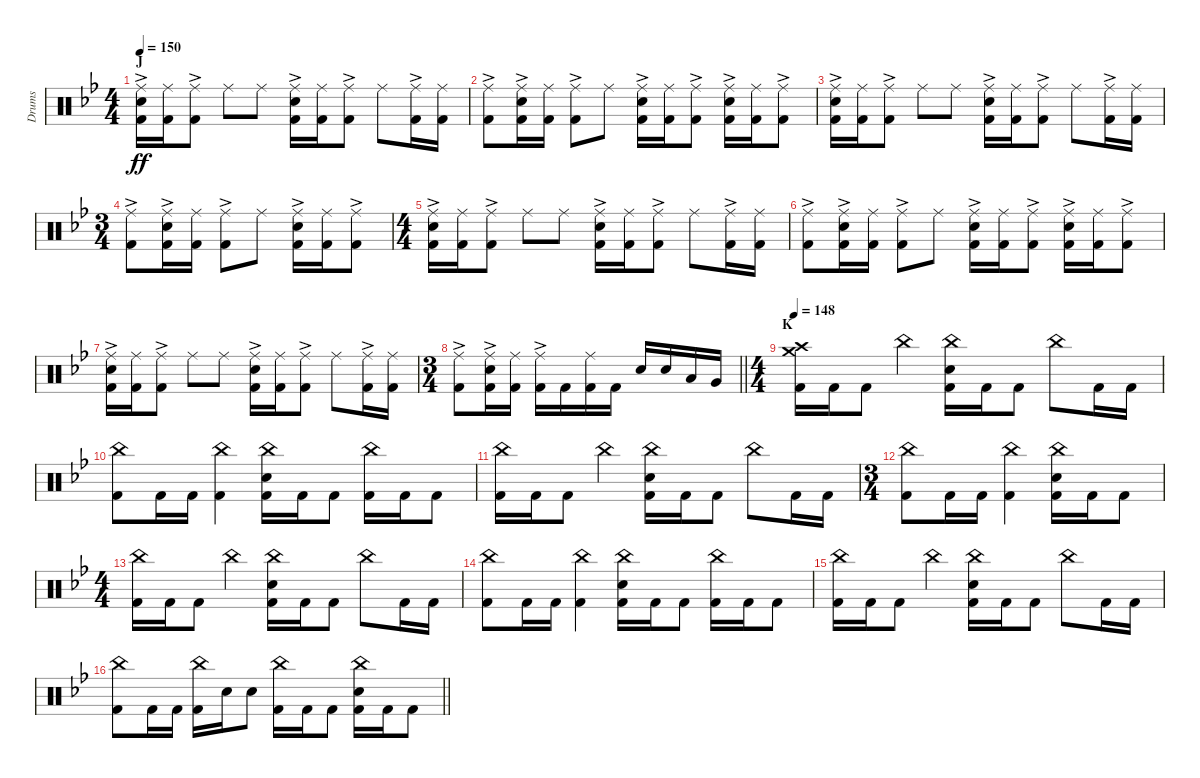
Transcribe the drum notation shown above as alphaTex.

\track ("Drums" "Drums") {instrument percussion}
\staff {score}
\articulation defaults
\ts (4 4)
\section ("" "J")
\tempo 150
\clef neutral
\ks gminor
("Ride (middle)"{ac} "Electric Snare (hit)" "Kick (hit) 2").16{dy ff} ("Ride (middle)" "Kick (hit) 2").16 ("Ride (middle)"{ac} "Kick (hit) 2").8 "Ride (middle)".8 "Ride (middle)".8 ("Ride (middle)"{ac} "Electric Snare (hit)" "Kick (hit) 2").16 ("Ride (middle)" "Kick (hit) 2").16 ("Ride (middle)"{ac} "Kick (hit) 2").8 "Ride (middle)".8 ("Ride (middle)"{ac} "Kick (hit) 2").16 ("Ride (middle)" "Kick (hit) 2").16 |
("Ride (middle)"{ac} "Kick (hit) 2").8 ("Ride (middle)"{ac} "Electric Snare (hit)" "Kick (hit) 2").16 ("Ride (middle)" "Kick (hit) 2").16 ("Ride (middle)"{ac} "Kick (hit) 2").8 "Ride (middle)".8 ("Ride (middle)"{ac} "Electric Snare (hit)" "Kick (hit) 2").16 ("Ride (middle)" "Kick (hit) 2").16 ("Ride (middle)"{ac} "Kick (hit) 2").8 ("Ride (middle)"{ac} "Electric Snare (hit)" "Kick (hit) 2").16 ("Ride (middle)" "Kick (hit) 2").16 ("Ride (middle)"{ac} "Kick (hit) 2").8 |
("Ride (middle)"{ac} "Electric Snare (hit)" "Kick (hit) 2").16 ("Ride (middle)" "Kick (hit) 2").16 ("Ride (middle)"{ac} "Kick (hit) 2").8 "Ride (middle)".8 "Ride (middle)".8 ("Ride (middle)"{ac} "Electric Snare (hit)" "Kick (hit) 2").16 ("Ride (middle)" "Kick (hit) 2").16 ("Ride (middle)"{ac} "Kick (hit) 2").8 "Ride (middle)".8 ("Ride (middle)"{ac} "Kick (hit) 2").16 ("Ride (middle)" "Kick (hit) 2").16 |
\ts (3 4)
("Ride (middle)"{ac} "Kick (hit) 2").8 ("Ride (middle)"{ac} "Electric Snare (hit)" "Kick (hit) 2").16 ("Ride (middle)" "Kick (hit) 2").16 ("Ride (middle)"{ac} "Kick (hit) 2").8 "Ride (middle)".8 ("Ride (middle)"{ac} "Electric Snare (hit)" "Kick (hit) 2").16 ("Ride (middle)" "Kick (hit) 2").16 ("Ride (middle)"{ac} "Kick (hit) 2").8 |
\ts (4 4)
("Ride (middle)"{ac} "Electric Snare (hit)" "Kick (hit) 2").16 ("Ride (middle)" "Kick (hit) 2").16 ("Ride (middle)"{ac} "Kick (hit) 2").8 "Ride (middle)".8 "Ride (middle)".8 ("Ride (middle)"{ac} "Electric Snare (hit)" "Kick (hit) 2").16 ("Ride (middle)" "Kick (hit) 2").16 ("Ride (middle)"{ac} "Kick (hit) 2").8 "Ride (middle)".8 ("Ride (middle)"{ac} "Kick (hit) 2").16 ("Ride (middle)" "Kick (hit) 2").16 |
("Ride (middle)"{ac} "Kick (hit) 2").8 ("Ride (middle)"{ac} "Electric Snare (hit)" "Kick (hit) 2").16 ("Ride (middle)" "Kick (hit) 2").16 ("Ride (middle)"{ac} "Kick (hit) 2").8 "Ride (middle)".8 ("Ride (middle)"{ac} "Electric Snare (hit)" "Kick (hit) 2").16 ("Ride (middle)" "Kick (hit) 2").16 ("Ride (middle)"{ac} "Kick (hit) 2").8 ("Ride (middle)"{ac} "Electric Snare (hit)" "Kick (hit) 2").16 ("Ride (middle)" "Kick (hit) 2").16 ("Ride (middle)"{ac} "Kick (hit) 2").8 |
("Ride (middle)"{ac} "Electric Snare (hit)" "Kick (hit) 2").16 ("Ride (middle)" "Kick (hit) 2").16 ("Ride (middle)"{ac} "Kick (hit) 2").8 "Ride (middle)".8 "Ride (middle)".8 ("Ride (middle)"{ac} "Electric Snare (hit)" "Kick (hit) 2").16 ("Ride (middle)" "Kick (hit) 2").16 ("Ride (middle)"{ac} "Kick (hit) 2").8 "Ride (middle)".8 ("Ride (middle)"{ac} "Kick (hit) 2").16 ("Ride (middle)" "Kick (hit) 2").16 |
\ts (3 4)
\barLineRight lightlight
("Ride (middle)"{ac} "Kick (hit) 2").8 ("Ride (middle)"{ac} "Electric Snare (hit)" "Kick (hit) 2").16 ("Ride (middle)" "Kick (hit) 2").16 ("Ride (middle)"{ac} "Kick (hit) 2").16 "Kick (hit) 2".16 ("Ride (middle)" "Kick (hit) 2").16 "Kick (hit) 2".16 "Electric Snare (hit)".16 "Electric Snare (hit)".16 "Low Tom (hit)".16 "Very Low Tom (hit)".16 |
\ts (4 4)
\section ("" "K")
\tempo 148
("Crash medium (hit)" "Crash high (hit)" "Kick (hit) 2").16 "Kick (hit) 2".16 "Kick (hit) 2".8 "China (hit)".4 ("China (hit)" "Electric Snare (hit)" "Kick (hit) 2").16 "Kick (hit) 2".16 "Kick (hit) 2".8 "China (hit)".8 "Kick (hit) 2".16 "Kick (hit) 2".16 |
("China (hit)" "Kick (hit) 2").8 "Kick (hit) 2".16 "Kick (hit) 2".16 ("China (hit)" "Kick (hit) 2").4 ("China (hit)" "Electric Snare (hit)" "Kick (hit) 2").16 "Kick (hit) 2".16 "Kick (hit) 2".8 ("China (hit)" "Kick (hit) 2").16 "Kick (hit) 2".16 "Kick (hit) 2".8 |
("China (hit)" "Kick (hit) 2").16 "Kick (hit) 2".16 "Kick (hit) 2".8 "China (hit)".4 ("China (hit)" "Electric Snare (hit)" "Kick (hit) 2").16 "Kick (hit) 2".16 "Kick (hit) 2".8 "China (hit)".8 "Kick (hit) 2".16 "Kick (hit) 2".16 |
\ts (3 4)
("China (hit)" "Kick (hit) 2").8 "Kick (hit) 2".16 "Kick (hit) 2".16 ("China (hit)" "Kick (hit) 2").4 ("China (hit)" "Electric Snare (hit)" "Kick (hit) 2").16 "Kick (hit) 2".16 "Kick (hit) 2".8 |
\ts (4 4)
("China (hit)" "Kick (hit) 2").16 "Kick (hit) 2".16 "Kick (hit) 2".8 "China (hit)".4 ("China (hit)" "Electric Snare (hit)" "Kick (hit) 2").16 "Kick (hit) 2".16 "Kick (hit) 2".8 "China (hit)".8 "Kick (hit) 2".16 "Kick (hit) 2".16 |
("China (hit)" "Kick (hit) 2").8 "Kick (hit) 2".16 "Kick (hit) 2".16 ("China (hit)" "Kick (hit) 2").4 ("China (hit)" "Electric Snare (hit)" "Kick (hit) 2").16 "Kick (hit) 2".16 "Kick (hit) 2".8 ("China (hit)" "Kick (hit) 2").16 "Kick (hit) 2".16 "Kick (hit) 2".8 |
("China (hit)" "Kick (hit) 2").16 "Kick (hit) 2".16 "Kick (hit) 2".8 "China (hit)".4 ("China (hit)" "Electric Snare (hit)" "Kick (hit) 2").16 "Kick (hit) 2".16 "Kick (hit) 2".8 "China (hit)".8 "Kick (hit) 2".16 "Kick (hit) 2".16 |
\barLineRight lightlight
("China (hit)" "Kick (hit) 2").8 "Kick (hit) 2".16 "Kick (hit) 2".16 ("China (hit)" "Kick (hit) 2").16 "Electric Snare (hit)".16 "Electric Snare (hit)".8 ("China (hit)" "Kick (hit) 2").16 "Kick (hit) 2".16 "Kick (hit) 2".8 ("China (hit)" "Electric Snare (hit)" "Kick (hit) 2").16 "Kick (hit) 2".16 "Kick (hit) 2".8
